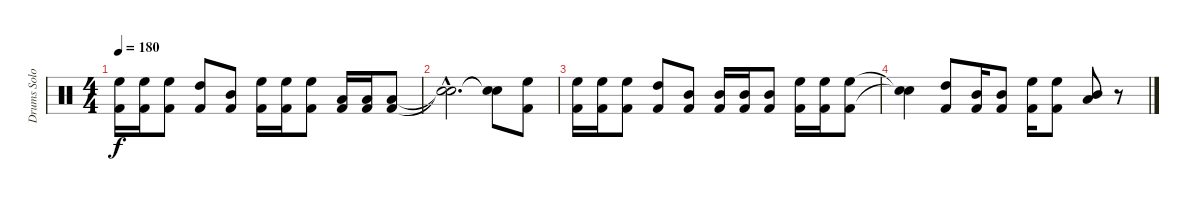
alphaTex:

\track ("Drums Solo" "Drums Solo") {instrument percussion}
\staff {score}
\articulation defaults
\ts (4 4)
\tempo 180
\clef neutral
\ks c
("Kick (hit) 2" "High Floor Tom (hit)").16{dy f} ("Kick (hit) 2" "High Floor Tom (hit)").16 ("Kick (hit) 2" "High Floor Tom (hit)").8 ("Kick (hit) 2" "High Tom (hit)").8 ("Kick (hit) 2" "Mid Tom (hit)").8 ("Kick (hit) 2" "High Floor Tom (hit)").16 ("Kick (hit) 2" "High Floor Tom (hit)").16 ("Kick (hit) 2" "High Floor Tom (hit)").8 ("Kick (hit) 2" "Low Tom (hit)").16 ("Kick (hit) 2" "Low Tom (hit)").16 ("Kick (hit) 2" "Low Tom (hit)").8 |
("Snare (hit)"{hac t} "Snare (hit)"{hac t}).2{d} ("Snare (hit)"{t} "Snare (hit)"{t}).8 ("Kick (hit) 2" "High Floor Tom (hit)").8 |
("Kick (hit) 2" "High Floor Tom (hit)").16 ("Kick (hit) 2" "High Floor Tom (hit)").16 ("Kick (hit) 2" "High Floor Tom (hit)").8 ("Kick (hit) 2" "High Tom (hit)").8 ("Kick (hit) 2" "Mid Tom (hit)").8 ("Kick (hit) 2" "Mid Tom (hit)").16 ("Kick (hit) 2" "Mid Tom (hit)").16 ("Kick (hit) 2" "Mid Tom (hit)").8 ("Kick (hit) 2" "High Floor Tom (hit)").16 ("Kick (hit) 2" "High Floor Tom (hit)").16 ("Kick (hit) 2" "High Floor Tom (hit)").8 |
("Snare (hit)"{t} "Snare (hit)"{t}).4 ("Kick (hit) 2" "High Tom (hit)").8 ("Kick (hit) 2" "Mid Tom (hit)").16 ("Kick (hit) 2" "Mid Tom (hit)").8 ("Kick (hit) 2" "High Floor Tom (hit)").16 ("Kick (hit) 2" "High Floor Tom (hit)").8 ("Low Tom (hit)" "Mid Tom (hit)").8 r.8
